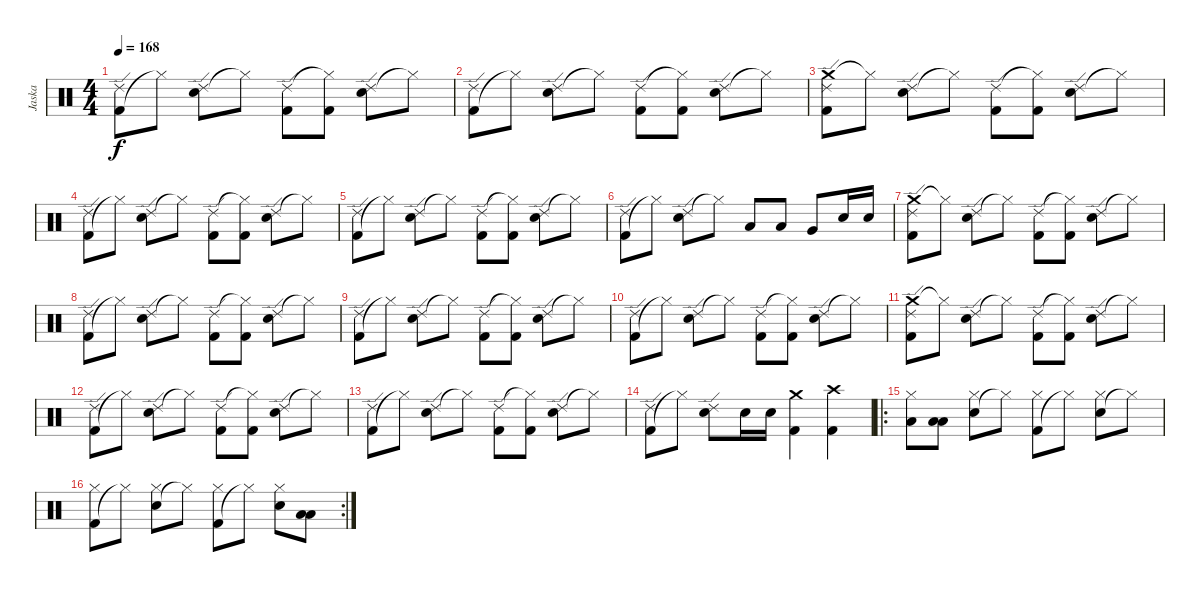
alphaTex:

\track ("Jaska" "Jaska") {instrument percussion}
\staff {score}
\articulation defaults
\ts (4 4)
\tempo 168
\clef neutral
\ks c
("Kick (hit) 2" "Ride (edge) 2").8{dy f} "Hi-Hat (closed)"{t}.8 ("Electric Snare (hit)" "Ride (edge) 2").8 "Hi-Hat (closed)"{t}.8 ("Kick (hit) 2" "Ride (edge) 2").8 ("Kick (hit) 2" "Hi-Hat (closed)"{t}).8 ("Electric Snare (hit)" "Ride (edge) 2").8 "Hi-Hat (closed)"{t}.8 |
("Kick (hit) 2" "Ride (edge) 2").8 "Hi-Hat (closed)"{t}.8 ("Electric Snare (hit)" "Ride (edge) 2").8 "Hi-Hat (closed)"{t}.8 ("Kick (hit) 2" "Ride (edge) 2").8 ("Kick (hit) 2" "Hi-Hat (closed)"{t}).8 ("Electric Snare (hit)" "Ride (edge) 2").8 "Hi-Hat (closed)"{t}.8 |
("Crash medium (hit)" "Kick (hit) 2" "Ride (edge) 2").8 "Hi-Hat (closed)"{t}.8 ("Electric Snare (hit)" "Ride (edge) 2").8 "Hi-Hat (closed)"{t}.8 ("Kick (hit) 2" "Ride (edge) 2").8 ("Kick (hit) 2" "Hi-Hat (closed)"{t}).8 ("Electric Snare (hit)" "Ride (edge) 2").8 "Hi-Hat (closed)"{t}.8 |
("Kick (hit) 2" "Ride (edge) 2").8 "Hi-Hat (closed)"{t}.8 ("Electric Snare (hit)" "Ride (edge) 2").8 "Hi-Hat (closed)"{t}.8 ("Kick (hit) 2" "Ride (edge) 2").8 ("Kick (hit) 2" "Hi-Hat (closed)"{t}).8 ("Electric Snare (hit)" "Ride (edge) 2").8 "Hi-Hat (closed)"{t}.8 |
("Kick (hit) 2" "Ride (edge) 2").8 "Hi-Hat (closed)"{t}.8 ("Electric Snare (hit)" "Ride (edge) 2").8 "Hi-Hat (closed)"{t}.8 ("Kick (hit) 2" "Ride (edge) 2").8 ("Kick (hit) 2" "Hi-Hat (closed)"{t}).8 ("Electric Snare (hit)" "Ride (edge) 2").8 "Hi-Hat (closed)"{t}.8 |
("Kick (hit) 2" "Ride (edge) 2").8 "Hi-Hat (closed)"{t}.8 ("Electric Snare (hit)" "Ride (edge) 2").8 "Hi-Hat (closed)"{t}.8 "Low Tom (hit)".8 "Low Tom (hit)".8 "Very Low Tom (hit)".8 "Electric Snare (hit)".16 "Electric Snare (hit)".16 |
("Crash medium (hit)" "Kick (hit) 2" "Ride (edge) 2").8 "Hi-Hat (closed)"{t}.8 ("Electric Snare (hit)" "Ride (edge) 2").8 "Hi-Hat (closed)"{t}.8 ("Kick (hit) 2" "Ride (edge) 2").8 ("Kick (hit) 2" "Hi-Hat (closed)"{t}).8 ("Electric Snare (hit)" "Ride (edge) 2").8 "Hi-Hat (closed)"{t}.8 |
("Kick (hit) 2" "Ride (edge) 2").8 "Hi-Hat (closed)"{t}.8 ("Electric Snare (hit)" "Ride (edge) 2").8 "Hi-Hat (closed)"{t}.8 ("Kick (hit) 2" "Ride (edge) 2").8 ("Kick (hit) 2" "Hi-Hat (closed)"{t}).8 ("Electric Snare (hit)" "Ride (edge) 2").8 "Hi-Hat (closed)"{t}.8 |
("Kick (hit) 2" "Ride (edge) 2").8 "Hi-Hat (closed)"{t}.8 ("Electric Snare (hit)" "Ride (edge) 2").8 "Hi-Hat (closed)"{t}.8 ("Kick (hit) 2" "Ride (edge) 2").8 ("Kick (hit) 2" "Hi-Hat (closed)"{t}).8 ("Electric Snare (hit)" "Ride (edge) 2").8 "Hi-Hat (closed)"{t}.8 |
("Kick (hit) 2" "Ride (edge) 2").8 "Hi-Hat (closed)"{t}.8 ("Electric Snare (hit)" "Ride (edge) 2").8 "Hi-Hat (closed)"{t}.8 ("Kick (hit) 2" "Ride (edge) 2").8 ("Kick (hit) 2" "Hi-Hat (closed)"{t}).8 ("Electric Snare (hit)" "Ride (edge) 2").8 "Hi-Hat (closed)"{t}.8 |
("Crash medium (hit)" "Kick (hit) 2" "Ride (edge) 2").8 "Hi-Hat (closed)"{t}.8 ("Electric Snare (hit)" "Ride (edge) 2").8 "Hi-Hat (closed)"{t}.8 ("Kick (hit) 2" "Ride (edge) 2").8 ("Kick (hit) 2" "Hi-Hat (closed)"{t}).8 ("Electric Snare (hit)" "Ride (edge) 2").8 "Hi-Hat (closed)"{t}.8 |
("Kick (hit) 2" "Ride (edge) 2").8 "Hi-Hat (closed)"{t}.8 ("Electric Snare (hit)" "Ride (edge) 2").8 "Hi-Hat (closed)"{t}.8 ("Kick (hit) 2" "Ride (edge) 2").8 ("Kick (hit) 2" "Hi-Hat (closed)"{t}).8 ("Electric Snare (hit)" "Ride (edge) 2").8 "Hi-Hat (closed)"{t}.8 |
("Kick (hit) 2" "Ride (edge) 2").8 "Hi-Hat (closed)"{t}.8 ("Electric Snare (hit)" "Ride (edge) 2").8 "Hi-Hat (closed)"{t}.8 ("Kick (hit) 2" "Ride (edge) 2").8 ("Kick (hit) 2" "Hi-Hat (closed)"{t}).8 ("Electric Snare (hit)" "Ride (edge) 2").8 "Hi-Hat (closed)"{t}.8 |
("Kick (hit) 2" "Ride (edge) 2").8 "Hi-Hat (closed)"{t}.8 ("Electric Snare (hit)" "Ride (edge) 2").8 "Electric Snare (hit)".16 "Electric Snare (hit)".16 ("Crash medium (hit)" "Kick (hit) 2").4 ("Crash high (hit)" "Kick (hit) 2").4 |
\ro
("Low Tom (hit)" "Hi-Hat (closed)").8 ("Low Tom (hit)" "Low Tom (hit)").8 ("Electric Snare (hit)" "Hi-Hat (closed)").8 "Hi-Hat (closed)"{t}.8 ("Kick (hit) 2" "Hi-Hat (closed)").8 "Hi-Hat (closed)"{t}.8 ("Electric Snare (hit)" "Hi-Hat (closed)").8 "Hi-Hat (closed)"{t}.8 |
\rc 2
("Kick (hit) 2" "Hi-Hat (closed)").8 "Hi-Hat (closed)"{t}.8 ("Electric Snare (hit)" "Hi-Hat (closed)").8 "Hi-Hat (closed)"{t}.8 ("Kick (hit) 2" "Hi-Hat (closed)").8 "Hi-Hat (closed)"{t}.8 ("Electric Snare (hit)" "Hi-Hat (closed)").8 ("Low Tom (hit)" "Low Tom (hit)").8
